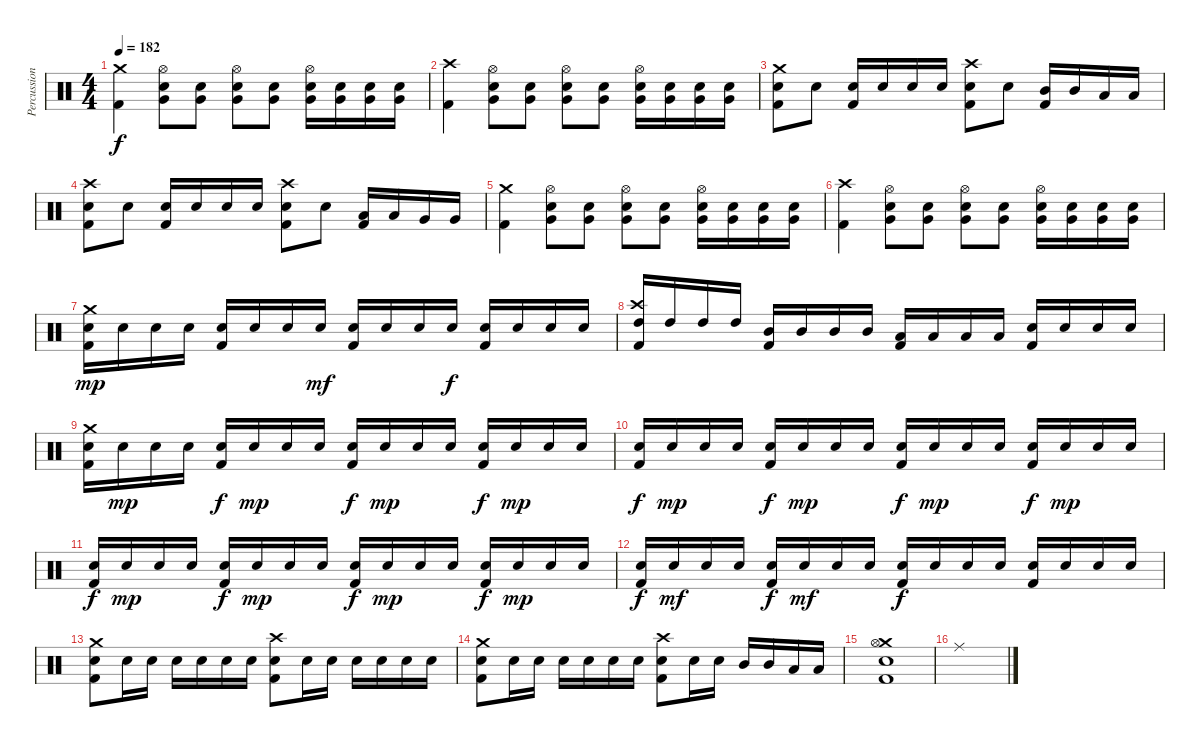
\track ("Percussion" "Percussion") {instrument percussion}
\staff {score}
\articulation defaults
\ts (4 4)
\tempo 182
\clef neutral
\ks c
("Crash medium (hit)" "Kick (hit) 2").4{dy f} ("Hi-Hat (open)" "Very Low Tom (hit)" "Electric Snare (hit)").8 ("Very Low Tom (hit)" "Electric Snare (hit)").8 ("Hi-Hat (open)" "Very Low Tom (hit)" "Electric Snare (hit)").8 ("Very Low Tom (hit)" "Electric Snare (hit)").8 ("Hi-Hat (open)" "Very Low Tom (hit)" "Electric Snare (hit)").16 ("Very Low Tom (hit)" "Electric Snare (hit)").16 ("Very Low Tom (hit)" "Electric Snare (hit)").16 ("Very Low Tom (hit)" "Electric Snare (hit)").16 |
("Crash high (hit)" "Kick (hit) 2").4 ("Hi-Hat (open)" "Very Low Tom (hit)" "Electric Snare (hit)").8 ("Very Low Tom (hit)" "Electric Snare (hit)").8 ("Hi-Hat (open)" "Very Low Tom (hit)" "Electric Snare (hit)").8 ("Very Low Tom (hit)" "Electric Snare (hit)").8 ("Hi-Hat (open)" "Very Low Tom (hit)" "Electric Snare (hit)").16 ("Very Low Tom (hit)" "Electric Snare (hit)").16 ("Very Low Tom (hit)" "Electric Snare (hit)").16 ("Very Low Tom (hit)" "Electric Snare (hit)").16 |
("Crash medium (hit)" "Electric Snare (hit)" "Kick (hit) 2").8 "Electric Snare (hit)".8 ("Electric Snare (hit)" "Kick (hit) 2").16 "Electric Snare (hit)".16 "Electric Snare (hit)".16 "Electric Snare (hit)".16 ("Crash high (hit)" "Electric Snare (hit)" "Kick (hit) 2").8 "Electric Snare (hit)".8 ("Mid Tom (hit)" "Kick (hit) 2").16 "Mid Tom (hit)".16 "Low Tom (hit)".16 "Low Tom (hit)".16 |
("Crash high (hit)" "Electric Snare (hit)" "Kick (hit) 2").8 "Electric Snare (hit)".8 ("Electric Snare (hit)" "Kick (hit) 2").16 "Electric Snare (hit)".16 "Electric Snare (hit)".16 "Electric Snare (hit)".16 ("Crash high (hit)" "Electric Snare (hit)" "Kick (hit) 2").8 "Electric Snare (hit)".8 ("Low Tom (hit)" "Kick (hit) 2").16 "Low Tom (hit)".16 "Very Low Tom (hit)".16 "Very Low Tom (hit)".16 |
("Crash medium (hit)" "Kick (hit) 2").4 ("Hi-Hat (open)" "Very Low Tom (hit)" "Electric Snare (hit)").8 ("Very Low Tom (hit)" "Electric Snare (hit)").8 ("Hi-Hat (open)" "Very Low Tom (hit)" "Electric Snare (hit)").8 ("Very Low Tom (hit)" "Electric Snare (hit)").8 ("Hi-Hat (open)" "Very Low Tom (hit)" "Electric Snare (hit)").16 ("Very Low Tom (hit)" "Electric Snare (hit)").16 ("Very Low Tom (hit)" "Electric Snare (hit)").16 ("Very Low Tom (hit)" "Electric Snare (hit)").16 |
("Crash high (hit)" "Kick (hit) 2").4 ("Hi-Hat (open)" "Very Low Tom (hit)" "Electric Snare (hit)").8 ("Very Low Tom (hit)" "Electric Snare (hit)").8 ("Hi-Hat (open)" "Very Low Tom (hit)" "Electric Snare (hit)").8 ("Very Low Tom (hit)" "Electric Snare (hit)").8 ("Hi-Hat (open)" "Very Low Tom (hit)" "Electric Snare (hit)").16 ("Very Low Tom (hit)" "Electric Snare (hit)").16 ("Very Low Tom (hit)" "Electric Snare (hit)").16 ("Very Low Tom (hit)" "Electric Snare (hit)").16 |
("Crash medium (hit)" "Electric Snare (hit)" "Kick (hit) 2").16{dy mp} "Electric Snare (hit)".16 "Electric Snare (hit)".16 "Electric Snare (hit)".16 ("Electric Snare (hit)" "Kick (hit) 2").16 "Electric Snare (hit)".16 "Electric Snare (hit)".16 "Electric Snare (hit)".16{dy mf} ("Electric Snare (hit)" "Kick (hit) 2").16 "Electric Snare (hit)".16 "Electric Snare (hit)".16 "Electric Snare (hit)".16{dy f} ("Electric Snare (hit)" "Kick (hit) 2").16 "Electric Snare (hit)".16 "Electric Snare (hit)".16 "Electric Snare (hit)".16 |
("Crash high (hit)" "High Tom (hit)" "Kick (hit) 2").16 "High Tom (hit)".16 "High Tom (hit)".16 "High Tom (hit)".16 ("Mid Tom (hit)" "Kick (hit) 2").16 "Mid Tom (hit)".16 "Mid Tom (hit)".16 "Mid Tom (hit)".16 ("Low Tom (hit)" "Kick (hit) 2").16 "Low Tom (hit)".16 "Low Tom (hit)".16 "Low Tom (hit)".16 ("Electric Snare (hit)" "Kick (hit) 2").16 "Electric Snare (hit)".16 "Electric Snare (hit)".16 "Electric Snare (hit)".16 |
("Crash medium (hit)" "Electric Snare (hit)" "Kick (hit) 2").16 "Electric Snare (hit)".16{dy mp} "Electric Snare (hit)".16 "Electric Snare (hit)".16 ("Electric Snare (hit)" "Kick (hit) 2").16{dy f} "Electric Snare (hit)".16{dy mp} "Electric Snare (hit)".16 "Electric Snare (hit)".16 ("Electric Snare (hit)" "Kick (hit) 2").16{dy f} "Electric Snare (hit)".16{dy mp} "Electric Snare (hit)".16 "Electric Snare (hit)".16 ("Electric Snare (hit)" "Kick (hit) 2").16{dy f} "Electric Snare (hit)".16{dy mp} "Electric Snare (hit)".16 "Electric Snare (hit)".16 |
("Electric Snare (hit)" "Kick (hit) 2").16{dy f} "Electric Snare (hit)".16{dy mp} "Electric Snare (hit)".16 "Electric Snare (hit)".16 ("Electric Snare (hit)" "Kick (hit) 2").16{dy f} "Electric Snare (hit)".16{dy mp} "Electric Snare (hit)".16 "Electric Snare (hit)".16 ("Electric Snare (hit)" "Kick (hit) 2").16{dy f} "Electric Snare (hit)".16{dy mp} "Electric Snare (hit)".16 "Electric Snare (hit)".16 ("Electric Snare (hit)" "Kick (hit) 2").16{dy f} "Electric Snare (hit)".16{dy mp} "Electric Snare (hit)".16 "Electric Snare (hit)".16 |
("Electric Snare (hit)" "Kick (hit) 2").16{dy f} "Electric Snare (hit)".16{dy mp} "Electric Snare (hit)".16 "Electric Snare (hit)".16 ("Electric Snare (hit)" "Kick (hit) 2").16{dy f} "Electric Snare (hit)".16{dy mp} "Electric Snare (hit)".16 "Electric Snare (hit)".16 ("Electric Snare (hit)" "Kick (hit) 2").16{dy f} "Electric Snare (hit)".16{dy mp} "Electric Snare (hit)".16 "Electric Snare (hit)".16 ("Electric Snare (hit)" "Kick (hit) 2").16{dy f} "Electric Snare (hit)".16{dy mp} "Electric Snare (hit)".16 "Electric Snare (hit)".16 |
("Electric Snare (hit)" "Kick (hit) 2").16{dy f} "Electric Snare (hit)".16{dy mf} "Electric Snare (hit)".16 "Electric Snare (hit)".16 ("Electric Snare (hit)" "Kick (hit) 2").16{dy f} "Electric Snare (hit)".16{dy mf} "Electric Snare (hit)".16 "Electric Snare (hit)".16 ("Electric Snare (hit)" "Kick (hit) 2").16{dy f} "Electric Snare (hit)".16 "Electric Snare (hit)".16 "Electric Snare (hit)".16 ("Electric Snare (hit)" "Kick (hit) 2").16 "Electric Snare (hit)".16 "Electric Snare (hit)".16 "Electric Snare (hit)".16 |
("Crash medium (hit)" "Electric Snare (hit)" "Kick (hit) 2").8 "Electric Snare (hit)".16 "Electric Snare (hit)".16 "Electric Snare (hit)".16 "Electric Snare (hit)".16 "Electric Snare (hit)".16 "Electric Snare (hit)".16 ("Crash high (hit)" "Electric Snare (hit)" "Kick (hit) 2").8 "Electric Snare (hit)".16 "Electric Snare (hit)".16 "Electric Snare (hit)".16 "Electric Snare (hit)".16 "Electric Snare (hit)".16 "Electric Snare (hit)".16 |
("Crash medium (hit)" "Electric Snare (hit)" "Kick (hit) 2").8 "Electric Snare (hit)".16 "Electric Snare (hit)".16 "Electric Snare (hit)".16 "Electric Snare (hit)".16 "Electric Snare (hit)".16 "Electric Snare (hit)".16 ("Crash high (hit)" "Electric Snare (hit)" "Kick (hit) 2").8 "Electric Snare (hit)".16 "Electric Snare (hit)".16 "Mid Tom (hit)".16 "Mid Tom (hit)".16 "Low Tom (hit)".16 "Low Tom (hit)".16 |
("Crash medium (hit)" "Hi-Hat (open)" "Electric Snare (hit)" "Kick (hit) 2").1 |
"Ride (middle)".1
